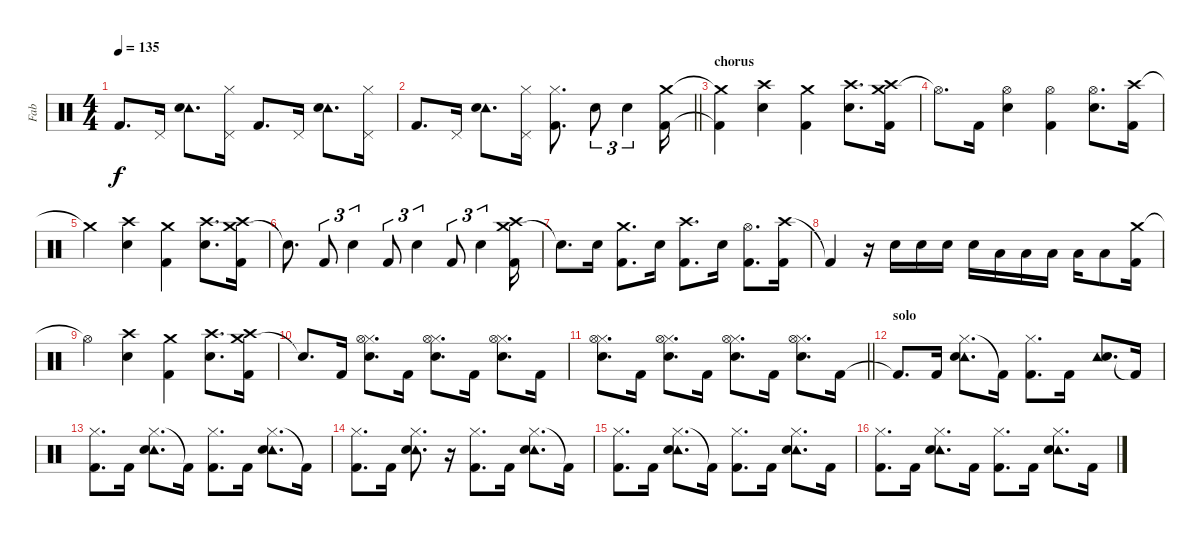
\track ("Fab" "Fab") {instrument percussion}
\staff {score}
\articulation defaults
\ts (4 4)
\tempo 135
\clef neutral
\ks c "Kick (hit) 2".8{d dy f} "Pedal Hi-Hat (hit)".16
("Tambourine (hit)" "Snare (hit) 2").8{d} ("Hi-Hat (closed)" "Pedal Hi-Hat (hit)").16 "Kick (hit) 2".8{d} "Pedal Hi-Hat (hit)".16 ("Tambourine (hit)" "Snare (hit) 2").8{d} ("Hi-Hat (closed)" "Pedal Hi-Hat (hit)").16 |
\barLineRight lightlight "Kick (hit) 2".8{d} "Pedal Hi-Hat (hit)".16
("Tambourine (hit)" "Snare (hit) 2").8{d} ("Hi-Hat (closed)" "Pedal Hi-Hat (hit)").16 ("Hi-Hat (closed)" "Kick (hit) 2").8{d} "Snare (hit) 2".8{tu (3 2)} "Snare (hit) 2".4{tu (3 2)} ("Crash medium (hit)" "Kick (hit) 2").16 |
\section ("" "chorus")
("Crash medium (hit)"{t} "Kick (hit) 2"{t}).4 ("Crash high (hit)" "Snare (hit) 2").4 ("Crash medium (hit)" "Kick (hit) 2").4 ("Crash high (hit)" "Snare (hit) 2").8{d} ("Crash medium (hit)" "Crash high (hit)" "Kick (hit) 2").16 |
"Hi-Hat (open)"{t}.8{d} "Kick (hit) 2".16 ("Hi-Hat (open)" "Snare (hit) 2").4 ("Hi-Hat (open)" "Kick (hit) 2").4 ("Hi-Hat (open)" "Snare (hit) 2").8{d} ("Crash high (hit)" "Kick (hit) 2").16 |
"Crash medium (hit)"{t}.4 ("Crash high (hit)" "Snare (hit) 2").4 ("Crash medium (hit)" "Kick (hit) 2").4 ("Crash high (hit)" "Snare (hit) 2").8{d} ("Crash medium (hit)" "Crash high (hit)" "Kick (hit) 2").16 |
"Snare (hit)"{t}.8{d} "Kick (hit) 2".8{tu (3 2)} "Snare (hit) 2".4{tu (3 2)} "Kick (hit) 2".8{tu (3 2)} "Snare (hit) 2".4{tu (3 2)} "Kick (hit) 2".8{tu (3 2)} "Snare (hit) 2".4{tu (3 2)} ("Crash medium (hit)" "Crash high (hit)" "Kick (hit) 2").16 |
"Snare (hit) 2"{t}.8{d} "Snare (hit) 2".16 ("Crash medium (hit)" "Kick (hit) 2").8{d} "Snare (hit) 2".16 ("Crash high (hit)" "Kick (hit) 2").8{d} "Snare (hit) 2".16 ("Hi-Hat (open)" "Kick (hit) 2").8{d} ("Crash high (hit)" "Kick (hit) 2").16 |
"Kick (hit) 2"{t}.4 r.16 "Snare (hit) 2".16 "Snare (hit) 2".16 "Snare (hit) 2".16 "Snare (hit) 2".16 "Low Tom (hit)".16 "Low Tom (hit)".16 "Low Tom (hit)".16 "Low Floor Tom (hit)".16 "Low Floor Tom (hit)".8 ("Crash medium (hit)" "Kick (hit) 2").16 |
"Hi-Hat (open)"{t}.4 ("Crash high (hit)" "Snare (hit) 2").4 ("Crash medium (hit)" "Kick (hit) 2").4 ("Crash high (hit)" "Snare (hit) 2").8{d} ("Crash medium (hit)" "Crash high (hit)" "Kick (hit) 2").16 |
"Snare (hit) 2"{t}.8{d} "Kick (hit) 2".16 ("Hi-Hat (closed)" "Hi-Hat (open)" "Snare (hit) 2").8{d} "Kick (hit) 2".16 ("Hi-Hat (closed)" "Hi-Hat (open)" "Snare (hit) 2").8{d} "Kick (hit) 2".16 ("Hi-Hat (closed)" "Hi-Hat (open)" "Snare (hit) 2").8{d} "Kick (hit) 2".16 |
\barLineRight lightlight
("Hi-Hat (closed)" "Hi-Hat (open)" "Snare (hit) 2").8{d} "Kick (hit) 2".16 ("Hi-Hat (closed)" "Hi-Hat (open)" "Snare (hit) 2").8{d} "Kick (hit) 2".16 ("Hi-Hat (closed)" "Hi-Hat (open)" "Snare (hit) 2").8{d} "Kick (hit) 2".16 ("Hi-Hat (closed)" "Hi-Hat (open)" "Snare (hit) 2").8{d} "Kick (hit) 2".16 |
\section ("" "solo")
"Kick (hit) 2"{t}.8{d} "Kick (hit) 2".16 ("Hi-Hat (closed)" "Tambourine (hit)" "Snare (hit) 2").8{d} "Kick (hit) 2"{t}.16 ("Hi-Hat (closed)" "Kick (hit) 2").8{d} "Kick (hit) 2".16 ("Tambourine (hit)" "Snare (hit) 2").8{d} "Kick (hit) 2"{t}.16 |
("Hi-Hat (closed)" "Kick (hit) 2").8{d} "Kick (hit) 2".16 ("Hi-Hat (closed)" "Tambourine (hit)" "Snare (hit) 2").8{d} "Kick (hit) 2"{t}.16 ("Hi-Hat (closed)" "Kick (hit) 2").8{d} "Kick (hit) 2".16 ("Hi-Hat (closed)" "Tambourine (hit)" "Snare (hit) 2").8{d} "Kick (hit) 2"{t}.16 |
("Hi-Hat (closed)" "Kick (hit) 2").8{d} "Kick (hit) 2".16 ("Hi-Hat (closed)" "Tambourine (hit)" "Snare (hit) 2").8{d} r.16 ("Hi-Hat (closed)" "Kick (hit) 2").8{d} "Kick (hit) 2".16 ("Hi-Hat (closed)" "Tambourine (hit)" "Snare (hit) 2").8{d} "Kick (hit) 2"{t}.16 |
("Hi-Hat (closed)" "Kick (hit) 2").8{d} "Kick (hit) 2".16 ("Hi-Hat (closed)" "Tambourine (hit)" "Snare (hit) 2").8{d} "Kick (hit) 2"{t}.16 ("Hi-Hat (closed)" "Kick (hit) 2").8{d} "Kick (hit) 2".16 ("Hi-Hat (closed)" "Tambourine (hit)" "Snare (hit) 2").8{d} "Kick (hit) 2".16 |
("Hi-Hat (closed)" "Kick (hit) 2").8{d} "Kick (hit) 2".16 ("Hi-Hat (closed)" "Tambourine (hit)" "Snare (hit) 2").8{d} "Kick (hit) 2".16 ("Hi-Hat (closed)" "Kick (hit) 2").8{d} "Kick (hit) 2".16 ("Hi-Hat (closed)" "Tambourine (hit)" "Snare (hit) 2").8{d} "Kick (hit) 2".16
